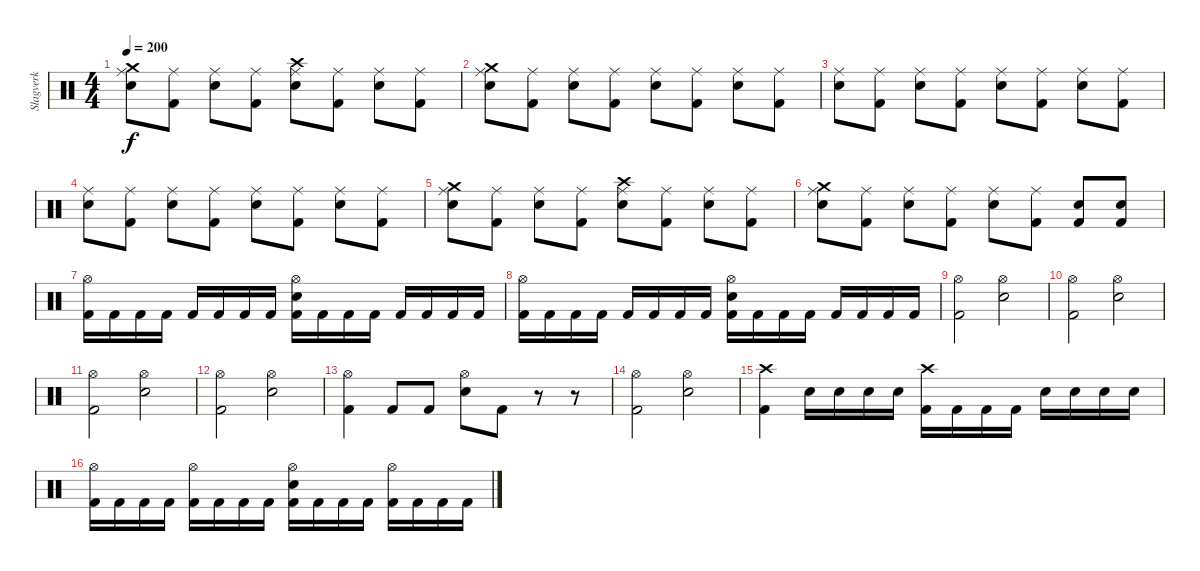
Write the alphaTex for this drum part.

\track ("Slagverk" "Slagverk") {instrument percussion}
\staff {score}
\articulation defaults
\ts (4 4)
\tempo 200
\clef neutral
\ks c
("Ride (middle)" "Snare (hit) 2" "Crash medium (hit)").8{dy f} ("Kick (hit) 2" "Ride (middle)").8 ("Ride (middle)" "Snare (hit) 2").8 ("Kick (hit) 2" "Ride (middle)").8 ("Ride (middle)" "Snare (hit) 2" "Crash high (hit)").8 ("Kick (hit) 2" "Ride (middle)").8 ("Ride (middle)" "Snare (hit) 2").8 ("Kick (hit) 2" "Ride (middle)").8 |
("Ride (middle)" "Snare (hit) 2" "Crash medium (hit)").8 ("Kick (hit) 2" "Ride (middle)").8 ("Ride (middle)" "Snare (hit) 2").8 ("Kick (hit) 2" "Ride (middle)").8 ("Ride (middle)" "Snare (hit) 2").8 ("Kick (hit) 2" "Ride (middle)").8 ("Ride (middle)" "Snare (hit) 2").8 ("Kick (hit) 2" "Ride (middle)").8 |
("Ride (middle)" "Snare (hit) 2").8 ("Kick (hit) 2" "Ride (middle)").8 ("Ride (middle)" "Snare (hit) 2").8 ("Kick (hit) 2" "Ride (middle)").8 ("Ride (middle)" "Snare (hit) 2").8 ("Kick (hit) 2" "Ride (middle)").8 ("Ride (middle)" "Snare (hit) 2").8 ("Kick (hit) 2" "Ride (middle)").8 |
("Ride (middle)" "Snare (hit) 2").8 ("Kick (hit) 2" "Ride (middle)").8 ("Ride (middle)" "Snare (hit) 2").8 ("Kick (hit) 2" "Ride (middle)").8 ("Ride (middle)" "Snare (hit) 2").8 ("Kick (hit) 2" "Ride (middle)").8 ("Ride (middle)" "Snare (hit) 2").8 ("Kick (hit) 2" "Ride (middle)").8 |
("Ride (middle)" "Snare (hit) 2" "Crash medium (hit)").8 ("Kick (hit) 2" "Ride (middle)").8 ("Ride (middle)" "Snare (hit) 2").8 ("Kick (hit) 2" "Ride (middle)").8 ("Ride (middle)" "Snare (hit) 2" "Crash high (hit)").8 ("Kick (hit) 2" "Ride (middle)").8 ("Ride (middle)" "Snare (hit) 2").8 ("Kick (hit) 2" "Ride (middle)").8 |
("Ride (middle)" "Snare (hit) 2" "Crash medium (hit)").8 ("Kick (hit) 2" "Ride (middle)").8 ("Ride (middle)" "Snare (hit) 2").8 ("Kick (hit) 2" "Ride (middle)").8 ("Ride (middle)" "Snare (hit) 2").8 ("Kick (hit) 2" "Ride (middle)").8 ("Kick (hit) 2" "Snare (hit) 2").8 ("Kick (hit) 2" "Snare (hit) 2").8 |
("Kick (hit) 2" "Hi-Hat (open)").16 "Kick (hit) 2".16 "Kick (hit) 2".16 "Kick (hit) 2".16 "Kick (hit) 2".16 "Kick (hit) 2".16 "Kick (hit) 2".16 "Kick (hit) 2".16 ("Kick (hit) 2" "Hi-Hat (open)" "Snare (hit) 2").16 "Kick (hit) 2".16 "Kick (hit) 2".16 "Kick (hit) 2".16 "Kick (hit) 2".16 "Kick (hit) 2".16 "Kick (hit) 2".16 "Kick (hit) 2".16 |
("Kick (hit) 2" "Hi-Hat (open)").16 "Kick (hit) 2".16 "Kick (hit) 2".16 "Kick (hit) 2".16 "Kick (hit) 2".16 "Kick (hit) 2".16 "Kick (hit) 2".16 "Kick (hit) 2".16 ("Kick (hit) 2" "Hi-Hat (open)" "Snare (hit) 2").16 "Kick (hit) 2".16 "Kick (hit) 2".16 "Kick (hit) 2".16 "Kick (hit) 2".16 "Kick (hit) 2".16 "Kick (hit) 2".16 "Kick (hit) 2".16 |
("Hi-Hat (open)" "Kick (hit) 2").2 ("Snare (hit) 2" "Hi-Hat (open)").2 |
("Hi-Hat (open)" "Kick (hit) 2").2 ("Snare (hit) 2" "Hi-Hat (open)").2 |
("Hi-Hat (open)" "Kick (hit) 2").2 ("Snare (hit) 2" "Hi-Hat (open)").2 |
("Hi-Hat (open)" "Kick (hit) 2").2 ("Snare (hit) 2" "Hi-Hat (open)").2 |
("Kick (hit) 2" "Hi-Hat (open)").4 "Kick (hit) 2".8 "Kick (hit) 2".8 ("Snare (hit) 2" "Hi-Hat (open)").8 "Kick (hit) 2".8 r.8 r.8 |
("Hi-Hat (open)" "Kick (hit) 2").2 ("Snare (hit) 2" "Hi-Hat (open)").2 |
("Kick (hit) 2" "Crash high (hit)").4 "Snare (hit) 2".16 "Snare (hit) 2".16 "Snare (hit) 2".16 "Snare (hit) 2".16 ("Kick (hit) 2" "Crash high (hit)").16 "Kick (hit) 2".16 "Kick (hit) 2".16 "Kick (hit) 2".16 "Snare (hit) 2".16 "Snare (hit) 2".16 "Snare (hit) 2".16 "Snare (hit) 2".16 |
("Kick (hit) 2" "Hi-Hat (open)").16 "Kick (hit) 2".16 "Kick (hit) 2".16 "Kick (hit) 2".16 ("Kick (hit) 2" "Hi-Hat (open)").16 "Kick (hit) 2".16 "Kick (hit) 2".16 "Kick (hit) 2".16 ("Kick (hit) 2" "Hi-Hat (open)" "Snare (hit) 2").16 "Kick (hit) 2".16 "Kick (hit) 2".16 "Kick (hit) 2".16 ("Kick (hit) 2" "Hi-Hat (open)").16 "Kick (hit) 2".16 "Kick (hit) 2".16 "Kick (hit) 2".16
